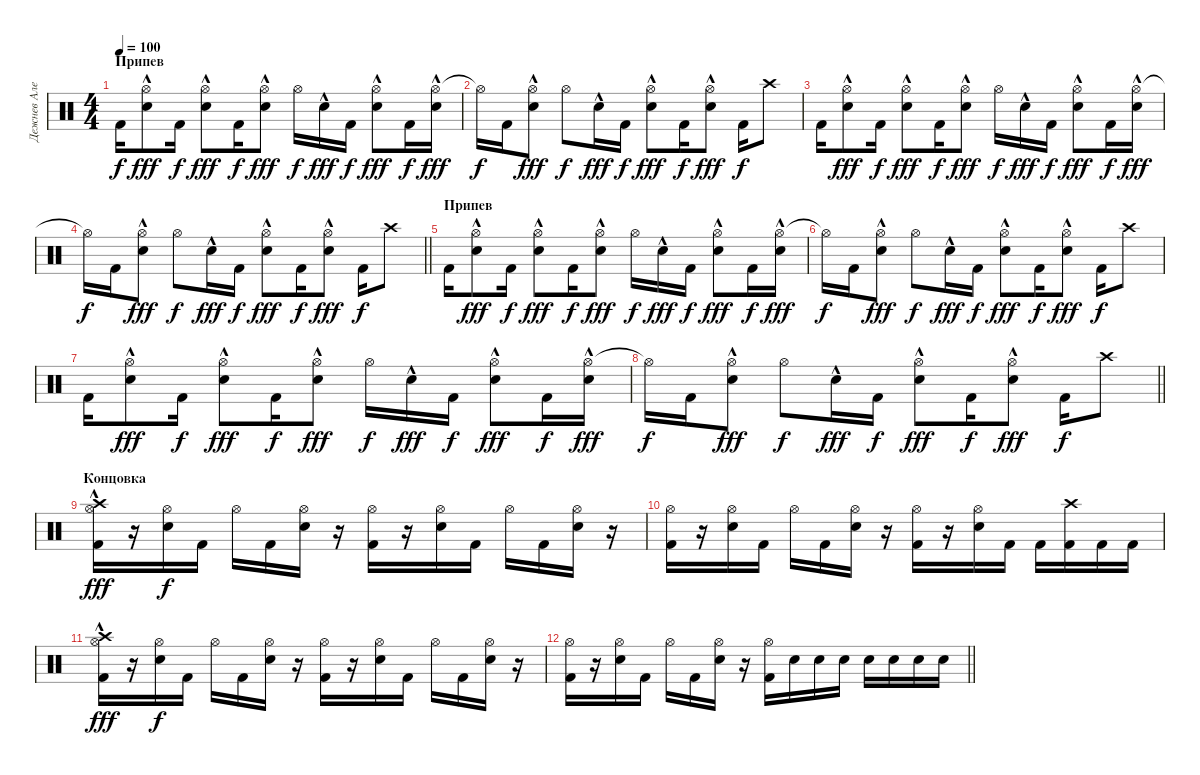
\track ("Дежнев Алексей - аккустические барабаны" "Дежнев Але") {instrument percussion}
\staff {score}
\articulation defaults
\ts (4 4)
\section ("" "Припев")
\tempo 100
\clef neutral
\ks c "Kick (hit) 2".16{dy f}
("Hi-Hat (open)" "Snare (hit) 2"{hac}).8{dy fff} "Kick (hit) 2".16{dy f} ("Hi-Hat (open)" "Snare (hit) 2"{hac}).8{dy fff} "Kick (hit) 2".16{dy f} ("Hi-Hat (open)" "Snare (hit) 2"{hac}).8{dy fff} "Hi-Hat (open)".16{dy f} "Snare (hit) 2"{hac}.16{dy fff} "Kick (hit) 2".16{dy f} ("Hi-Hat (open)" "Snare (hit) 2"{hac}).8{dy fff} "Kick (hit) 2".16{dy f} ("Hi-Hat (open)" "Snare (hit) 2"{hac}).16{dy fff} |
"Hi-Hat (open)"{t}.16{dy f} "Kick (hit) 2".16 ("Hi-Hat (open)" "Snare (hit) 2"{hac}).8{dy fff} "Hi-Hat (open)".8{dy f} "Snare (hit) 2"{hac}.16{dy fff} "Kick (hit) 2".16{dy f} ("Hi-Hat (open)" "Snare (hit) 2"{hac}).8{dy fff} "Kick (hit) 2".16{dy f} ("Hi-Hat (open)" "Snare (hit) 2"{hac}).8{dy fff} "Kick (hit) 2".16{dy f} "Crash high (hit)".8 |
"Kick (hit) 2".16 ("Hi-Hat (open)" "Snare (hit) 2"{hac}).8{dy fff} "Kick (hit) 2".16{dy f} ("Hi-Hat (open)" "Snare (hit) 2"{hac}).8{dy fff} "Kick (hit) 2".16{dy f} ("Hi-Hat (open)" "Snare (hit) 2"{hac}).8{dy fff} "Hi-Hat (open)".16{dy f} "Snare (hit) 2"{hac}.16{dy fff} "Kick (hit) 2".16{dy f} ("Hi-Hat (open)" "Snare (hit) 2"{hac}).8{dy fff} "Kick (hit) 2".16{dy f} ("Hi-Hat (open)" "Snare (hit) 2"{hac}).16{dy fff} |
\barLineRight lightlight "Hi-Hat (open)"{t}.16{dy f} "Kick (hit) 2".16
("Hi-Hat (open)" "Snare (hit) 2"{hac}).8{dy fff} "Hi-Hat (open)".8{dy f} "Snare (hit) 2"{hac}.16{dy fff} "Kick (hit) 2".16{dy f} ("Hi-Hat (open)" "Snare (hit) 2"{hac}).8{dy fff} "Kick (hit) 2".16{dy f} ("Hi-Hat (open)" "Snare (hit) 2"{hac}).8{dy fff} "Kick (hit) 2".16{dy f} "Crash high (hit)".8 |
\section ("" "Припев")
"Kick (hit) 2".16 ("Hi-Hat (open)" "Snare (hit) 2"{hac}).8{dy fff} "Kick (hit) 2".16{dy f} ("Hi-Hat (open)" "Snare (hit) 2"{hac}).8{dy fff} "Kick (hit) 2".16{dy f} ("Hi-Hat (open)" "Snare (hit) 2"{hac}).8{dy fff} "Hi-Hat (open)".16{dy f} "Snare (hit) 2"{hac}.16{dy fff} "Kick (hit) 2".16{dy f} ("Hi-Hat (open)" "Snare (hit) 2"{hac}).8{dy fff} "Kick (hit) 2".16{dy f} ("Hi-Hat (open)" "Snare (hit) 2"{hac}).16{dy fff} |
"Hi-Hat (open)"{t}.16{dy f} "Kick (hit) 2".16 ("Hi-Hat (open)" "Snare (hit) 2"{hac}).8{dy fff} "Hi-Hat (open)".8{dy f} "Snare (hit) 2"{hac}.16{dy fff} "Kick (hit) 2".16{dy f} ("Hi-Hat (open)" "Snare (hit) 2"{hac}).8{dy fff} "Kick (hit) 2".16{dy f} ("Hi-Hat (open)" "Snare (hit) 2"{hac}).8{dy fff} "Kick (hit) 2".16{dy f} "Crash high (hit)".8 |
"Kick (hit) 2".16 ("Hi-Hat (open)" "Snare (hit) 2"{hac}).8{dy fff} "Kick (hit) 2".16{dy f} ("Hi-Hat (open)" "Snare (hit) 2"{hac}).8{dy fff} "Kick (hit) 2".16{dy f} ("Hi-Hat (open)" "Snare (hit) 2"{hac}).8{dy fff} "Hi-Hat (open)".16{dy f} "Snare (hit) 2"{hac}.16{dy fff} "Kick (hit) 2".16{dy f} ("Hi-Hat (open)" "Snare (hit) 2"{hac}).8{dy fff} "Kick (hit) 2".16{dy f} ("Hi-Hat (open)" "Snare (hit) 2"{hac}).16{dy fff} |
\barLineRight lightlight "Hi-Hat (open)"{t}.16{dy f} "Kick (hit) 2".16
("Hi-Hat (open)" "Snare (hit) 2"{hac}).8{dy fff} "Hi-Hat (open)".8{dy f} "Snare (hit) 2"{hac}.16{dy fff} "Kick (hit) 2".16{dy f} ("Hi-Hat (open)" "Snare (hit) 2"{hac}).8{dy fff} "Kick (hit) 2".16{dy f} ("Hi-Hat (open)" "Snare (hit) 2"{hac}).8{dy fff} "Kick (hit) 2".16{dy f} "Crash high (hit)".8 |
\section ("" "Концовка")
("Hi-Hat (open)" "Crash high (hit)"{hac} "Kick (hit) 2").16{dy fff} r.16 ("Hi-Hat (open)" "Snare (hit) 2").16{dy f} "Kick (hit) 2".16 "Hi-Hat (open)".16 "Kick (hit) 2".16 ("Hi-Hat (open)" "Snare (hit) 2").16 r.16 ("Hi-Hat (open)" "Kick (hit) 2").16 r.16 ("Hi-Hat (open)" "Snare (hit) 2").16 "Kick (hit) 2".16 "Hi-Hat (open)".16 "Kick (hit) 2".16 ("Hi-Hat (open)" "Snare (hit) 2").16 r.16 |
("Hi-Hat (open)" "Kick (hit) 2").16 r.16 ("Hi-Hat (open)" "Snare (hit) 2").16 "Kick (hit) 2".16 "Hi-Hat (open)".16 "Kick (hit) 2".16 ("Hi-Hat (open)" "Snare (hit) 2").16 r.16 ("Hi-Hat (open)" "Kick (hit) 2").16 r.16 ("Hi-Hat (open)" "Snare (hit) 2").16 "Kick (hit) 2".16 "Kick (hit) 2".16 ("Crash high (hit)" "Kick (hit) 2").16 "Kick (hit) 2".16 "Kick (hit) 2".16 |
("Hi-Hat (open)" "Crash high (hit)"{hac} "Kick (hit) 2").16{dy fff} r.16 ("Hi-Hat (open)" "Snare (hit) 2").16{dy f} "Kick (hit) 2".16 "Hi-Hat (open)".16 "Kick (hit) 2".16 ("Hi-Hat (open)" "Snare (hit) 2").16 r.16 ("Hi-Hat (open)" "Kick (hit) 2").16 r.16 ("Hi-Hat (open)" "Snare (hit) 2").16 "Kick (hit) 2".16 "Hi-Hat (open)".16 "Kick (hit) 2".16 ("Hi-Hat (open)" "Snare (hit) 2").16 r.16 |
\barLineRight lightlight
("Hi-Hat (open)" "Kick (hit) 2").16 r.16 ("Hi-Hat (open)" "Snare (hit) 2").16 "Kick (hit) 2".16 "Hi-Hat (open)".16 "Kick (hit) 2".16 ("Hi-Hat (open)" "Snare (hit) 2").16 r.16 ("Hi-Hat (open)" "Kick (hit) 2").16 "Snare (hit) 2".16 "Snare (hit) 2".16 "Snare (hit) 2".16 "Snare (hit) 2".16 "Snare (hit) 2".16 "Snare (hit) 2".16 "Snare (hit) 2".16
